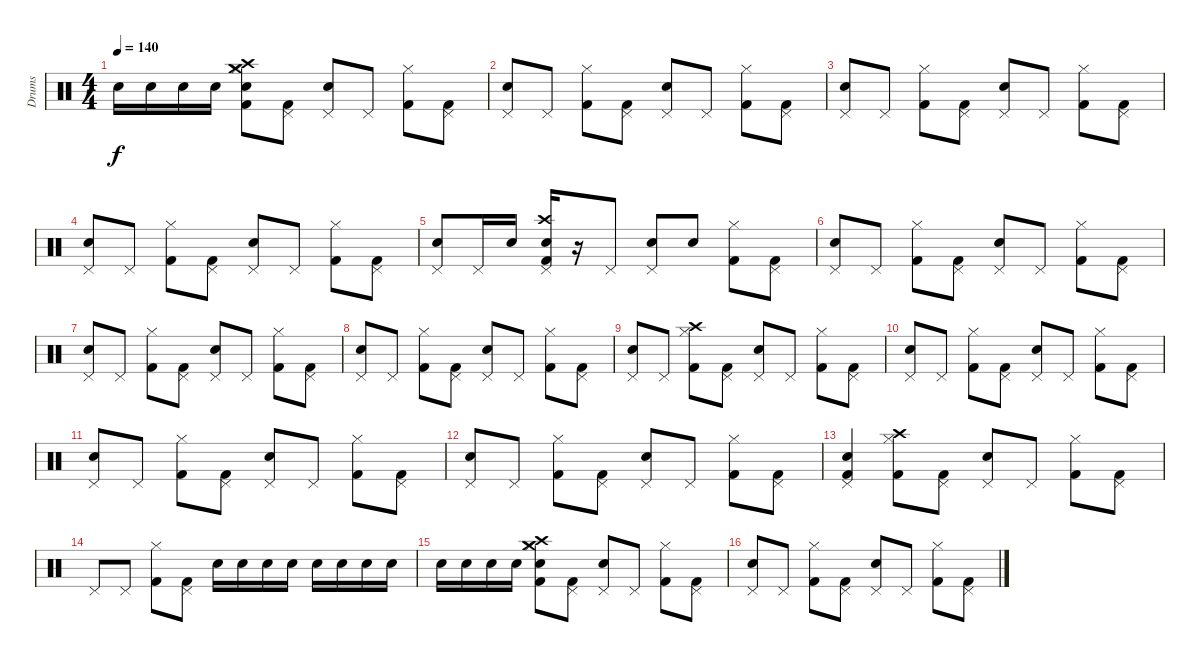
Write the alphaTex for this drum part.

\track ("Drums" "Drums") {instrument percussion}
\staff {score}
\articulation defaults
\ts (4 4)
\tempo 140
\clef neutral
\ks c "Electric Snare (hit)".16{dy f} "Electric Snare (hit)".16 "Electric Snare (hit)".16 "Electric Snare (hit)".16
("Electric Snare (hit)" "Crash high (hit)" "Kick (hit) 2" "Crash medium (hit)" "Hi-Hat (closed)").8 ("Kick (hit) 2" "Pedal Hi-Hat (hit)").8 ("Electric Snare (hit)" "Pedal Hi-Hat (hit)").8 "Pedal Hi-Hat (hit)".8 ("Kick (hit) 2" "Hi-Hat (closed)").8 ("Kick (hit) 2" "Pedal Hi-Hat (hit)").8 |
("Electric Snare (hit)" "Pedal Hi-Hat (hit)").8 "Pedal Hi-Hat (hit)".8 ("Kick (hit) 2" "Hi-Hat (closed)").8 ("Kick (hit) 2" "Pedal Hi-Hat (hit)").8 ("Electric Snare (hit)" "Pedal Hi-Hat (hit)").8 "Pedal Hi-Hat (hit)".8 ("Kick (hit) 2" "Hi-Hat (closed)").8 ("Kick (hit) 2" "Pedal Hi-Hat (hit)").8 |
("Electric Snare (hit)" "Pedal Hi-Hat (hit)").8 "Pedal Hi-Hat (hit)".8 ("Kick (hit) 2" "Hi-Hat (closed)").8 ("Kick (hit) 2" "Pedal Hi-Hat (hit)").8 ("Electric Snare (hit)" "Pedal Hi-Hat (hit)").8 "Pedal Hi-Hat (hit)".8 ("Kick (hit) 2" "Hi-Hat (closed)").8 ("Kick (hit) 2" "Pedal Hi-Hat (hit)").8 |
("Electric Snare (hit)" "Pedal Hi-Hat (hit)").8 "Pedal Hi-Hat (hit)".8 ("Kick (hit) 2" "Hi-Hat (closed)").8 ("Kick (hit) 2" "Pedal Hi-Hat (hit)").8 ("Electric Snare (hit)" "Pedal Hi-Hat (hit)").8 "Pedal Hi-Hat (hit)".8 ("Kick (hit) 2" "Hi-Hat (closed)").8 ("Kick (hit) 2" "Pedal Hi-Hat (hit)").8 |
("Electric Snare (hit)" "Pedal Hi-Hat (hit)").8 "Pedal Hi-Hat (hit)".16 "Electric Snare (hit)".16 ("Electric Snare (hit)" "Kick (hit) 2" "Crash high (hit)" "Pedal Hi-Hat (hit)").16 r.16 "Pedal Hi-Hat (hit)".8 ("Electric Snare (hit)" "Pedal Hi-Hat (hit)").8 "Electric Snare (hit)".8 ("Kick (hit) 2" "Hi-Hat (closed)").8 ("Kick (hit) 2" "Pedal Hi-Hat (hit)").8 |
("Electric Snare (hit)" "Pedal Hi-Hat (hit)").8 "Pedal Hi-Hat (hit)".8 ("Kick (hit) 2" "Hi-Hat (closed)").8 ("Kick (hit) 2" "Pedal Hi-Hat (hit)").8 ("Electric Snare (hit)" "Pedal Hi-Hat (hit)").8 "Pedal Hi-Hat (hit)".8 ("Kick (hit) 2" "Hi-Hat (closed)").8 ("Kick (hit) 2" "Pedal Hi-Hat (hit)").8 |
("Electric Snare (hit)" "Pedal Hi-Hat (hit)").8 "Pedal Hi-Hat (hit)".8 ("Kick (hit) 2" "Hi-Hat (closed)").8 ("Kick (hit) 2" "Pedal Hi-Hat (hit)").8 ("Electric Snare (hit)" "Pedal Hi-Hat (hit)").8 "Pedal Hi-Hat (hit)".8 ("Kick (hit) 2" "Hi-Hat (closed)").8 ("Kick (hit) 2" "Pedal Hi-Hat (hit)").8 |
("Electric Snare (hit)" "Pedal Hi-Hat (hit)").8 "Pedal Hi-Hat (hit)".8 ("Kick (hit) 2" "Hi-Hat (closed)").8 ("Kick (hit) 2" "Pedal Hi-Hat (hit)").8 ("Electric Snare (hit)" "Pedal Hi-Hat (hit)").8 "Pedal Hi-Hat (hit)".8 ("Kick (hit) 2" "Hi-Hat (closed)").8 ("Kick (hit) 2" "Pedal Hi-Hat (hit)").8 |
("Electric Snare (hit)" "Pedal Hi-Hat (hit)").8 "Pedal Hi-Hat (hit)".8 ("Crash high (hit)" "Kick (hit) 2" "Hi-Hat (closed)").8 ("Kick (hit) 2" "Pedal Hi-Hat (hit)").8 ("Electric Snare (hit)" "Pedal Hi-Hat (hit)").8 "Pedal Hi-Hat (hit)".8 ("Kick (hit) 2" "Hi-Hat (closed)").8 ("Kick (hit) 2" "Pedal Hi-Hat (hit)").8 |
("Electric Snare (hit)" "Pedal Hi-Hat (hit)").8 "Pedal Hi-Hat (hit)".8 ("Kick (hit) 2" "Hi-Hat (closed)").8 ("Kick (hit) 2" "Pedal Hi-Hat (hit)").8 ("Electric Snare (hit)" "Pedal Hi-Hat (hit)").8 "Pedal Hi-Hat (hit)".8 ("Kick (hit) 2" "Hi-Hat (closed)").8 ("Kick (hit) 2" "Pedal Hi-Hat (hit)").8 |
("Electric Snare (hit)" "Pedal Hi-Hat (hit)").8 "Pedal Hi-Hat (hit)".8 ("Kick (hit) 2" "Hi-Hat (closed)").8 ("Kick (hit) 2" "Pedal Hi-Hat (hit)").8 ("Electric Snare (hit)" "Pedal Hi-Hat (hit)").8 "Pedal Hi-Hat (hit)".8 ("Kick (hit) 2" "Hi-Hat (closed)").8 ("Kick (hit) 2" "Pedal Hi-Hat (hit)").8 |
("Electric Snare (hit)" "Pedal Hi-Hat (hit)").8 "Pedal Hi-Hat (hit)".8 ("Kick (hit) 2" "Hi-Hat (closed)").8 ("Kick (hit) 2" "Pedal Hi-Hat (hit)").8 ("Electric Snare (hit)" "Pedal Hi-Hat (hit)").8 "Pedal Hi-Hat (hit)".8 ("Kick (hit) 2" "Hi-Hat (closed)").8 ("Kick (hit) 2" "Pedal Hi-Hat (hit)").8 |
("Kick (hit) 2" "Electric Snare (hit)" "Pedal Hi-Hat (hit)").4 ("Crash high (hit)" "Kick (hit) 2" "Hi-Hat (closed)").8 ("Kick (hit) 2" "Pedal Hi-Hat (hit)").8 ("Electric Snare (hit)" "Pedal Hi-Hat (hit)").8 "Pedal Hi-Hat (hit)".8 ("Kick (hit) 2" "Hi-Hat (closed)").8 ("Kick (hit) 2" "Pedal Hi-Hat (hit)").8 |
"Pedal Hi-Hat (hit)".8 "Pedal Hi-Hat (hit)".8 ("Kick (hit) 2" "Hi-Hat (closed)").8 ("Kick (hit) 2" "Pedal Hi-Hat (hit)").8 "Electric Snare (hit)".16 "Electric Snare (hit)".16 "Electric Snare (hit)".16 "Electric Snare (hit)".16 "Electric Snare (hit)".16 "Electric Snare (hit)".16 "Electric Snare (hit)".16 "Electric Snare (hit)".16 |
"Electric Snare (hit)".16 "Electric Snare (hit)".16 "Electric Snare (hit)".16 "Electric Snare (hit)".16 ("Electric Snare (hit)" "Crash high (hit)" "Kick (hit) 2" "Crash medium (hit)" "Hi-Hat (closed)").8 ("Kick (hit) 2" "Pedal Hi-Hat (hit)").8 ("Electric Snare (hit)" "Pedal Hi-Hat (hit)").8 "Pedal Hi-Hat (hit)".8 ("Kick (hit) 2" "Hi-Hat (closed)").8 ("Kick (hit) 2" "Pedal Hi-Hat (hit)").8 |
("Electric Snare (hit)" "Pedal Hi-Hat (hit)").8 "Pedal Hi-Hat (hit)".8 ("Kick (hit) 2" "Hi-Hat (closed)").8 ("Kick (hit) 2" "Pedal Hi-Hat (hit)").8 ("Electric Snare (hit)" "Pedal Hi-Hat (hit)").8 "Pedal Hi-Hat (hit)".8 ("Kick (hit) 2" "Hi-Hat (closed)").8 ("Kick (hit) 2" "Pedal Hi-Hat (hit)").8
